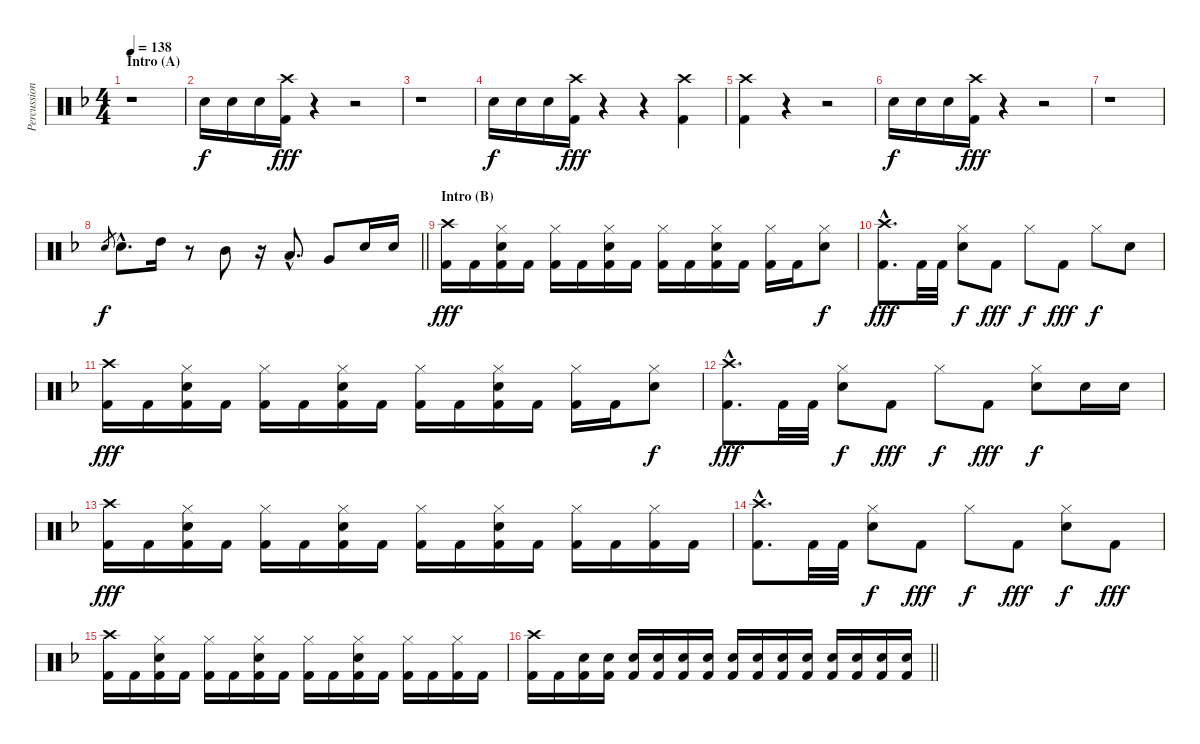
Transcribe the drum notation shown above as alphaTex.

\track ("Percussion" "Percussion") {instrument percussion}
\staff {score}
\articulation defaults
\ts (4 4)
\section ("" "Intro (A)")
\tempo 138
\clef neutral
\ks dminor
r.1{dy f} |
"Electric Snare (hit)".16 "Electric Snare (hit)".16 "Electric Snare (hit)".16 ("Crash high (hit)" "Kick (hit) 2").16{dy fff} r.4 r.2 |
r.1 |
"Electric Snare (hit)".16{dy f} "Electric Snare (hit)".16 "Electric Snare (hit)".16 ("Crash high (hit)" "Kick (hit) 2").16{dy fff} r.4 r.4 ("Crash high (hit)" "Kick (hit) 2").4 |
("Crash high (hit)" "Kick (hit) 2").4 r.4 r.2 |
"Electric Snare (hit)".16{dy f} "Electric Snare (hit)".16 "Electric Snare (hit)".16 ("Crash high (hit)" "Kick (hit) 2").16{dy fff} r.4 r.2 |
r.1 |
\barLineRight lightlight "Electric Snare (hit)".8{gr dy f} "Electric Snare (hit)"{hac}.8{d} "High Tom (hit)".16
r.8 "Mid Tom (hit)".8 r.16 "Low Tom (hit)"{hac}.8{d} "Very Low Tom (hit)".8 "Electric Snare (hit)".16 "Electric Snare (hit)".16 |
\section ("" "Intro (B)")
("Crash high (hit)" "Kick (hit) 2").16{dy fff} "Kick (hit) 2".16 ("Hi-Hat (closed)" "Electric Snare (hit)" "Kick (hit) 2").16 "Kick (hit) 2".16 ("Hi-Hat (closed)" "Kick (hit) 2").16 "Kick (hit) 2".16 ("Hi-Hat (closed)" "Electric Snare (hit)" "Kick (hit) 2").16 "Kick (hit) 2".16 ("Hi-Hat (closed)" "Kick (hit) 2").16 "Kick (hit) 2".16 ("Hi-Hat (closed)" "Electric Snare (hit)" "Kick (hit) 2").16 "Kick (hit) 2".16 ("Hi-Hat (closed)" "Kick (hit) 2").16 "Kick (hit) 2".16 ("Hi-Hat (closed)" "Electric Snare (hit)").8{dy f} |
("Crash high (hit)"{hac} "Kick (hit) 2"{hac}).8{d dy fff} "Kick (hit) 2".32 "Kick (hit) 2".32 ("Hi-Hat (closed)" "Electric Snare (hit)").8{dy f} "Kick (hit) 2".8{dy fff} "Hi-Hat (closed)".8{dy f} "Kick (hit) 2".8{dy fff} "Hi-Hat (closed)".8{dy f} "Electric Snare (hit)".8 |
("Crash high (hit)" "Kick (hit) 2").16{dy fff} "Kick (hit) 2".16 ("Hi-Hat (closed)" "Electric Snare (hit)" "Kick (hit) 2").16 "Kick (hit) 2".16 ("Hi-Hat (closed)" "Kick (hit) 2").16 "Kick (hit) 2".16 ("Hi-Hat (closed)" "Electric Snare (hit)" "Kick (hit) 2").16 "Kick (hit) 2".16 ("Hi-Hat (closed)" "Kick (hit) 2").16 "Kick (hit) 2".16 ("Hi-Hat (closed)" "Electric Snare (hit)" "Kick (hit) 2").16 "Kick (hit) 2".16 ("Hi-Hat (closed)" "Kick (hit) 2").16 "Kick (hit) 2".16 ("Hi-Hat (closed)" "Electric Snare (hit)").8{dy f} |
("Crash high (hit)"{hac} "Kick (hit) 2"{hac}).8{d dy fff} "Kick (hit) 2".32 "Kick (hit) 2".32 ("Hi-Hat (closed)" "Electric Snare (hit)").8{dy f} "Kick (hit) 2".8{dy fff} "Hi-Hat (closed)".8{dy f} "Kick (hit) 2".8{dy fff} ("Hi-Hat (closed)" "Electric Snare (hit)").8{dy f} "Electric Snare (hit)".16 "Electric Snare (hit)".16 |
("Crash high (hit)" "Kick (hit) 2").16{dy fff} "Kick (hit) 2".16 ("Hi-Hat (closed)" "Electric Snare (hit)" "Kick (hit) 2").16 "Kick (hit) 2".16 ("Hi-Hat (closed)" "Kick (hit) 2").16 "Kick (hit) 2".16 ("Hi-Hat (closed)" "Electric Snare (hit)" "Kick (hit) 2").16 "Kick (hit) 2".16 ("Hi-Hat (closed)" "Kick (hit) 2").16 "Kick (hit) 2".16 ("Hi-Hat (closed)" "Electric Snare (hit)" "Kick (hit) 2").16 "Kick (hit) 2".16 ("Hi-Hat (closed)" "Kick (hit) 2").16 "Kick (hit) 2".16 ("Hi-Hat (closed)" "Kick (hit) 2").16 "Kick (hit) 2".16 |
("Crash high (hit)"{hac} "Kick (hit) 2"{hac}).8{d} "Kick (hit) 2".32 "Kick (hit) 2".32 ("Hi-Hat (closed)" "Electric Snare (hit)").8{dy f} "Kick (hit) 2".8{dy fff} "Hi-Hat (closed)".8{dy f} "Kick (hit) 2".8{dy fff} ("Hi-Hat (closed)" "Electric Snare (hit)").8{dy f} "Kick (hit) 2".8{dy fff} |
("Crash high (hit)" "Kick (hit) 2").16 "Kick (hit) 2".16 ("Hi-Hat (closed)" "Electric Snare (hit)" "Kick (hit) 2").16 "Kick (hit) 2".16 ("Hi-Hat (closed)" "Kick (hit) 2").16 "Kick (hit) 2".16 ("Hi-Hat (closed)" "Electric Snare (hit)" "Kick (hit) 2").16 "Kick (hit) 2".16 ("Hi-Hat (closed)" "Kick (hit) 2").16 "Kick (hit) 2".16 ("Hi-Hat (closed)" "Electric Snare (hit)" "Kick (hit) 2").16 "Kick (hit) 2".16 ("Hi-Hat (closed)" "Kick (hit) 2").16 "Kick (hit) 2".16 ("Hi-Hat (closed)" "Kick (hit) 2").16 "Kick (hit) 2".16 |
\barLineRight lightlight
("Crash high (hit)" "Kick (hit) 2").16 "Kick (hit) 2".16 ("Electric Snare (hit)" "Kick (hit) 2").16 ("Electric Snare (hit)" "Kick (hit) 2").16 ("Electric Snare (hit)" "Kick (hit) 2").16 ("Electric Snare (hit)" "Kick (hit) 2").16 ("Electric Snare (hit)" "Kick (hit) 2").16 ("Electric Snare (hit)" "Kick (hit) 2").16 ("Electric Snare (hit)" "Kick (hit) 2").16 ("Electric Snare (hit)" "Kick (hit) 2").16 ("Electric Snare (hit)" "Kick (hit) 2").16 ("Electric Snare (hit)" "Kick (hit) 2").16 ("Electric Snare (hit)" "Kick (hit) 2").16 ("Electric Snare (hit)" "Kick (hit) 2").16 ("Electric Snare (hit)" "Kick (hit) 2").16 ("Electric Snare (hit)" "Kick (hit) 2").16
